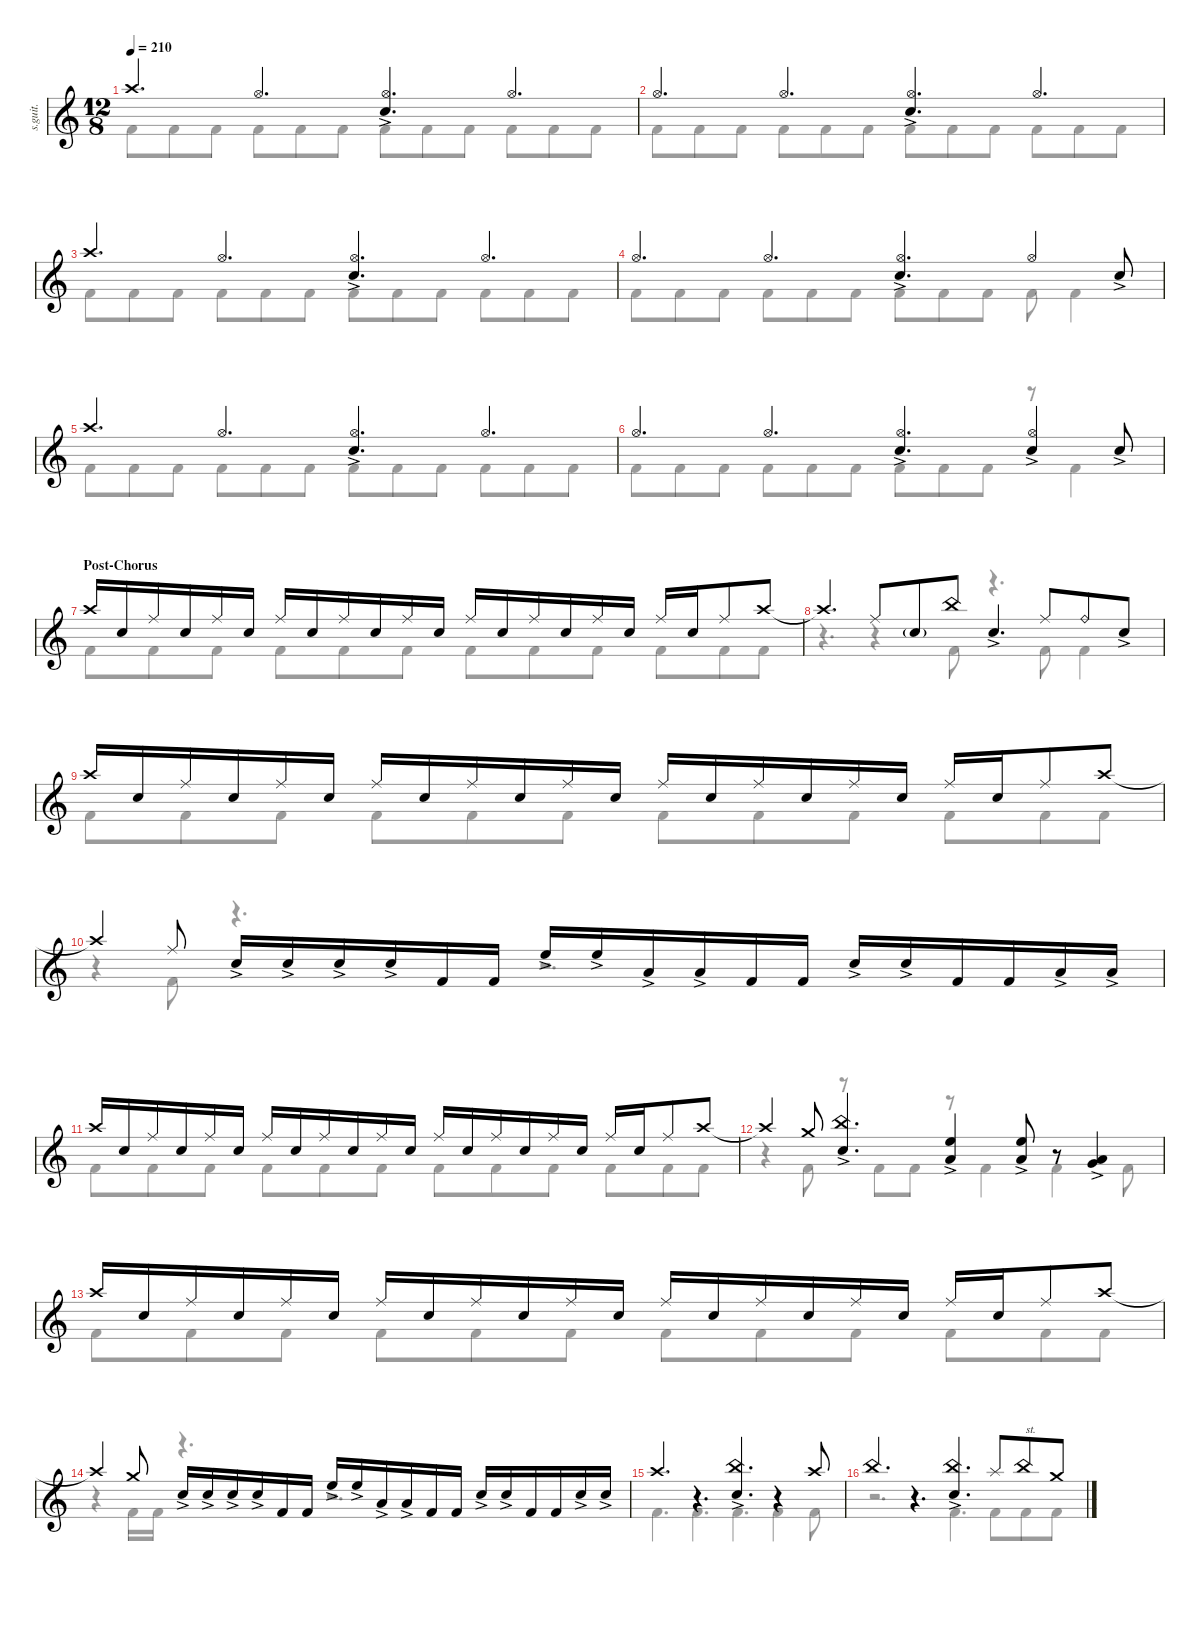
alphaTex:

\defaultSystemsLayout 4
\hideDynamics
\bracketExtendMode nobrackets
\track ("Percussion" "s.guit.") {instrument percussion}
\staff {score}
\articulation defaults
\voice
\ts (12 8)
\tempo 210
\clef g2
\ks c "Crash high (hit)".4{d lyrics (0 "") lyrics (1 "") lyrics (2 "") lyrics (3 "") lyrics (4 "") dy f} "Hi-Hat (open)".4{d lyrics (0 "") lyrics (1 "") lyrics (2 "") lyrics (3 "") lyrics (4 "")}
("Snare (hit) 2"{ac} "Hi-Hat (open)").4{d lyrics (0 "") lyrics (1 "") lyrics (2 "") lyrics (3 "") lyrics (4 "")} "Hi-Hat (open)".4{d lyrics (0 "") lyrics (1 "") lyrics (2 "") lyrics (3 "") lyrics (4 "")} |
"Hi-Hat (open)".4{d lyrics (0 "") lyrics (1 "") lyrics (2 "") lyrics (3 "") lyrics (4 "")} "Hi-Hat (open)".4{d lyrics (0 "") lyrics (1 "") lyrics (2 "") lyrics (3 "") lyrics (4 "")} ("Snare (hit) 2"{ac} "Hi-Hat (open)").4{d lyrics (0 "") lyrics (1 "") lyrics (2 "") lyrics (3 "") lyrics (4 "")} "Hi-Hat (open)".4{d lyrics (0 "") lyrics (1 "") lyrics (2 "") lyrics (3 "") lyrics (4 "")} |
"Crash high (hit)".4{d lyrics (0 "") lyrics (1 "") lyrics (2 "") lyrics (3 "") lyrics (4 "")} "Hi-Hat (open)".4{d lyrics (0 "") lyrics (1 "") lyrics (2 "") lyrics (3 "") lyrics (4 "")} ("Snare (hit) 2"{ac} "Hi-Hat (open)").4{d lyrics (0 "") lyrics (1 "") lyrics (2 "") lyrics (3 "") lyrics (4 "")} "Hi-Hat (open)".4{d lyrics (0 "") lyrics (1 "") lyrics (2 "") lyrics (3 "") lyrics (4 "")} |
"Hi-Hat (open)".4{d lyrics (0 "") lyrics (1 "") lyrics (2 "") lyrics (3 "") lyrics (4 "")} "Hi-Hat (open)".4{d lyrics (0 "") lyrics (1 "") lyrics (2 "") lyrics (3 "") lyrics (4 "")} ("Snare (hit) 2"{ac} "Hi-Hat (open)").4{d lyrics (0 "") lyrics (1 "") lyrics (2 "") lyrics (3 "") lyrics (4 "")} "Hi-Hat (open)".4{lyrics (0 "") lyrics (1 "") lyrics (2 "") lyrics (3 "") lyrics (4 "")} "Snare (hit) 2"{ac}.8{lyrics (0 "") lyrics (1 "") lyrics (2 "") lyrics (3 "") lyrics (4 "") dy mf} |
"Crash high (hit)".4{d lyrics (0 "") lyrics (1 "") lyrics (2 "") lyrics (3 "") lyrics (4 "") dy f} "Hi-Hat (open)".4{d lyrics (0 "") lyrics (1 "") lyrics (2 "") lyrics (3 "") lyrics (4 "")} ("Snare (hit) 2"{ac} "Hi-Hat (open)").4{d lyrics (0 "") lyrics (1 "") lyrics (2 "") lyrics (3 "") lyrics (4 "")} "Hi-Hat (open)".4{d lyrics (0 "") lyrics (1 "") lyrics (2 "") lyrics (3 "") lyrics (4 "")} |
"Hi-Hat (open)".4{d lyrics (0 "") lyrics (1 "") lyrics (2 "") lyrics (3 "") lyrics (4 "")} "Hi-Hat (open)".4{d lyrics (0 "") lyrics (1 "") lyrics (2 "") lyrics (3 "") lyrics (4 "")} ("Snare (hit) 2"{ac} "Hi-Hat (open)").4{d lyrics (0 "") lyrics (1 "") lyrics (2 "") lyrics (3 "") lyrics (4 "")} ("Hi-Hat (open)" "Snare (hit) 2"{ac}).4{lyrics (0 "") lyrics (1 "") lyrics (2 "") lyrics (3 "") lyrics (4 "")} "Snare (hit) 2"{ac}.8{lyrics (0 "") lyrics (1 "") lyrics (2 "") lyrics (3 "") lyrics (4 "") dy mf} |
\section ("" "Post-Chorus")
"Crash high (hit)".16{lyrics (0 "") lyrics (1 "") lyrics (2 "") lyrics (3 "") lyrics (4 "") dy f} "Snare (hit) 2".16{lyrics (0 "") lyrics (1 "") lyrics (2 "") lyrics (3 "") lyrics (4 "")} "Ride (middle)".16{lyrics (0 "") lyrics (1 "") lyrics (2 "") lyrics (3 "") lyrics (4 "")} "Snare (hit) 2".16{lyrics (0 "") lyrics (1 "") lyrics (2 "") lyrics (3 "") lyrics (4 "")} "Ride (middle)".16{lyrics (0 "") lyrics (1 "") lyrics (2 "") lyrics (3 "") lyrics (4 "")} "Snare (hit) 2".16{lyrics (0 "") lyrics (1 "") lyrics (2 "") lyrics (3 "") lyrics (4 "")} "Ride (middle)".16{lyrics (0 "") lyrics (1 "") lyrics (2 "") lyrics (3 "") lyrics (4 "")} "Snare (hit) 2".16{lyrics (0 "") lyrics (1 "") lyrics (2 "") lyrics (3 "") lyrics (4 "")} "Ride (middle)".16{lyrics (0 "") lyrics (1 "") lyrics (2 "") lyrics (3 "") lyrics (4 "")} "Snare (hit) 2".16{lyrics (0 "") lyrics (1 "") lyrics (2 "") lyrics (3 "") lyrics (4 "")} "Ride (middle)".16{lyrics (0 "") lyrics (1 "") lyrics (2 "") lyrics (3 "") lyrics (4 "")} "Snare (hit) 2".16{lyrics (0 "") lyrics (1 "") lyrics (2 "") lyrics (3 "") lyrics (4 "")} "Ride (middle)".16{lyrics (0 "") lyrics (1 "") lyrics (2 "") lyrics (3 "") lyrics (4 "")} "Snare (hit) 2".16{lyrics (0 "") lyrics (1 "") lyrics (2 "") lyrics (3 "") lyrics (4 "")} "Ride (middle)".16{lyrics (0 "") lyrics (1 "") lyrics (2 "") lyrics (3 "") lyrics (4 "")} "Snare (hit) 2".16{lyrics (0 "") lyrics (1 "") lyrics (2 "") lyrics (3 "") lyrics (4 "")} "Ride (middle)".16{lyrics (0 "") lyrics (1 "") lyrics (2 "") lyrics (3 "") lyrics (4 "")} "Snare (hit) 2".16{lyrics (0 "") lyrics (1 "") lyrics (2 "") lyrics (3 "") lyrics (4 "")} "Ride (middle)".16{lyrics (0 "") lyrics (1 "") lyrics (2 "") lyrics (3 "") lyrics (4 "")} "Snare (hit) 2".16{lyrics (0 "") lyrics (1 "") lyrics (2 "") lyrics (3 "") lyrics (4 "")} "Ride (middle)".8{lyrics (0 "") lyrics (1 "") lyrics (2 "") lyrics (3 "") lyrics (4 "")} "Crash high (hit)".8{lyrics (0 "") lyrics (1 "") lyrics (2 "") lyrics (3 "") lyrics (4 "")} |
"Crash high (hit)"{t}.4{d lyrics (0 "") lyrics (1 "") lyrics (2 "") lyrics (3 "") lyrics (4 "")} "Ride (middle)".8{lyrics (0 "") lyrics (1 "") lyrics (2 "") lyrics (3 "") lyrics (4 "")} "Snare (hit) 2"{g}.8{lyrics (0 "") lyrics (1 "") lyrics (2 "") lyrics (3 "") lyrics (4 "") dy ff} "China (hit)".8{lyrics (0 "") lyrics (1 "") lyrics (2 "") lyrics (3 "") lyrics (4 "") dy f} "Snare (hit) 2"{ac}.4{d lyrics (0 "") lyrics (1 "") lyrics (2 "") lyrics (3 "") lyrics (4 "") dy mf} "Ride (middle)".8{lyrics (0 "") lyrics (1 "") lyrics (2 "") lyrics (3 "") lyrics (4 "") dy f} "Ride (bell)".8{lyrics (0 "") lyrics (1 "") lyrics (2 "") lyrics (3 "") lyrics (4 "")} "Snare (hit) 2"{ac}.8{lyrics (0 "") lyrics (1 "") lyrics (2 "") lyrics (3 "") lyrics (4 "") dy mf} |
"Crash high (hit)".16{lyrics (0 "") lyrics (1 "") lyrics (2 "") lyrics (3 "") lyrics (4 "") dy f} "Snare (hit) 2".16{lyrics (0 "") lyrics (1 "") lyrics (2 "") lyrics (3 "") lyrics (4 "")} "Ride (middle)".16{lyrics (0 "") lyrics (1 "") lyrics (2 "") lyrics (3 "") lyrics (4 "")} "Snare (hit) 2".16{lyrics (0 "") lyrics (1 "") lyrics (2 "") lyrics (3 "") lyrics (4 "")} "Ride (middle)".16{lyrics (0 "") lyrics (1 "") lyrics (2 "") lyrics (3 "") lyrics (4 "")} "Snare (hit) 2".16{lyrics (0 "") lyrics (1 "") lyrics (2 "") lyrics (3 "") lyrics (4 "")} "Ride (middle)".16{lyrics (0 "") lyrics (1 "") lyrics (2 "") lyrics (3 "") lyrics (4 "")} "Snare (hit) 2".16{lyrics (0 "") lyrics (1 "") lyrics (2 "") lyrics (3 "") lyrics (4 "")} "Ride (middle)".16{lyrics (0 "") lyrics (1 "") lyrics (2 "") lyrics (3 "") lyrics (4 "")} "Snare (hit) 2".16{lyrics (0 "") lyrics (1 "") lyrics (2 "") lyrics (3 "") lyrics (4 "")} "Ride (middle)".16{lyrics (0 "") lyrics (1 "") lyrics (2 "") lyrics (3 "") lyrics (4 "")} "Snare (hit) 2".16{lyrics (0 "") lyrics (1 "") lyrics (2 "") lyrics (3 "") lyrics (4 "")} "Ride (middle)".16{lyrics (0 "") lyrics (1 "") lyrics (2 "") lyrics (3 "") lyrics (4 "")} "Snare (hit) 2".16{lyrics (0 "") lyrics (1 "") lyrics (2 "") lyrics (3 "") lyrics (4 "")} "Ride (middle)".16{lyrics (0 "") lyrics (1 "") lyrics (2 "") lyrics (3 "") lyrics (4 "")} "Snare (hit) 2".16{lyrics (0 "") lyrics (1 "") lyrics (2 "") lyrics (3 "") lyrics (4 "")} "Ride (middle)".16{lyrics (0 "") lyrics (1 "") lyrics (2 "") lyrics (3 "") lyrics (4 "")} "Snare (hit) 2".16{lyrics (0 "") lyrics (1 "") lyrics (2 "") lyrics (3 "") lyrics (4 "")} "Ride (middle)".16{lyrics (0 "") lyrics (1 "") lyrics (2 "") lyrics (3 "") lyrics (4 "")} "Snare (hit) 2".16{lyrics (0 "") lyrics (1 "") lyrics (2 "") lyrics (3 "") lyrics (4 "")} "Ride (middle)".8{lyrics (0 "") lyrics (1 "") lyrics (2 "") lyrics (3 "") lyrics (4 "")} "Crash high (hit)".8{lyrics (0 "") lyrics (1 "") lyrics (2 "") lyrics (3 "") lyrics (4 "")} |
"Crash high (hit)"{t}.4{lyrics (0 "") lyrics (1 "") lyrics (2 "") lyrics (3 "") lyrics (4 "")} "Ride (middle)".8{lyrics (0 "") lyrics (1 "") lyrics (2 "") lyrics (3 "") lyrics (4 "")} "Snare (hit) 2"{ac}.16{lyrics (0 "") lyrics (1 "") lyrics (2 "") lyrics (3 "") lyrics (4 "") dy mf} "Snare (hit) 2"{ac}.16{lyrics (0 "") lyrics (1 "") lyrics (2 "") lyrics (3 "") lyrics (4 "")} "Snare (hit) 2"{ac}.16{lyrics (0 "") lyrics (1 "") lyrics (2 "") lyrics (3 "") lyrics (4 "")} "Snare (hit) 2"{ac}.16{lyrics (0 "") lyrics (1 "") lyrics (2 "") lyrics (3 "") lyrics (4 "")} "Kick (hit) 2".16{lyrics (0 "") lyrics (1 "") lyrics (2 "") lyrics (3 "") lyrics (4 "") dy f} "Kick (hit) 2".16{lyrics (0 "") lyrics (1 "") lyrics (2 "") lyrics (3 "") lyrics (4 "")} "High Floor Tom (hit)"{ac}.16{lyrics (0 "") lyrics (1 "") lyrics (2 "") lyrics (3 "") lyrics (4 "") dy mf} "High Floor Tom (hit)"{ac}.16{lyrics (0 "") lyrics (1 "") lyrics (2 "") lyrics (3 "") lyrics (4 "")} "Low Tom (hit)"{ac}.16{lyrics (0 "") lyrics (1 "") lyrics (2 "") lyrics (3 "") lyrics (4 "")} "Low Tom (hit)"{ac}.16{lyrics (0 "") lyrics (1 "") lyrics (2 "") lyrics (3 "") lyrics (4 "")} "Kick (hit) 2".16{lyrics (0 "") lyrics (1 "") lyrics (2 "") lyrics (3 "") lyrics (4 "") dy f} "Kick (hit) 2".16{lyrics (0 "") lyrics (1 "") lyrics (2 "") lyrics (3 "") lyrics (4 "")} "Snare (hit) 2"{ac}.16{lyrics (0 "") lyrics (1 "") lyrics (2 "") lyrics (3 "") lyrics (4 "") dy mf} "Snare (hit) 2"{ac}.16{lyrics (0 "") lyrics (1 "") lyrics (2 "") lyrics (3 "") lyrics (4 "")} "Kick (hit) 2".16{lyrics (0 "") lyrics (1 "") lyrics (2 "") lyrics (3 "") lyrics (4 "") dy f} "Kick (hit) 2".16{lyrics (0 "") lyrics (1 "") lyrics (2 "") lyrics (3 "") lyrics (4 "")} "Low Tom (hit)"{ac}.16{lyrics (0 "") lyrics (1 "") lyrics (2 "") lyrics (3 "") lyrics (4 "") dy mf} "Low Tom (hit)"{ac}.16{lyrics (0 "") lyrics (1 "") lyrics (2 "") lyrics (3 "") lyrics (4 "")} |
"Crash high (hit)".16{lyrics (0 "") lyrics (1 "") lyrics (2 "") lyrics (3 "") lyrics (4 "") dy f} "Snare (hit) 2".16{lyrics (0 "") lyrics (1 "") lyrics (2 "") lyrics (3 "") lyrics (4 "")} "Ride (middle)".16{lyrics (0 "") lyrics (1 "") lyrics (2 "") lyrics (3 "") lyrics (4 "")} "Snare (hit) 2".16{lyrics (0 "") lyrics (1 "") lyrics (2 "") lyrics (3 "") lyrics (4 "")} "Ride (middle)".16{lyrics (0 "") lyrics (1 "") lyrics (2 "") lyrics (3 "") lyrics (4 "")} "Snare (hit) 2".16{lyrics (0 "") lyrics (1 "") lyrics (2 "") lyrics (3 "") lyrics (4 "")} "Ride (middle)".16{lyrics (0 "") lyrics (1 "") lyrics (2 "") lyrics (3 "") lyrics (4 "")} "Snare (hit) 2".16{lyrics (0 "") lyrics (1 "") lyrics (2 "") lyrics (3 "") lyrics (4 "")} "Ride (middle)".16{lyrics (0 "") lyrics (1 "") lyrics (2 "") lyrics (3 "") lyrics (4 "")} "Snare (hit) 2".16{lyrics (0 "") lyrics (1 "") lyrics (2 "") lyrics (3 "") lyrics (4 "")} "Ride (middle)".16{lyrics (0 "") lyrics (1 "") lyrics (2 "") lyrics (3 "") lyrics (4 "")} "Snare (hit) 2".16{lyrics (0 "") lyrics (1 "") lyrics (2 "") lyrics (3 "") lyrics (4 "")} "Ride (middle)".16{lyrics (0 "") lyrics (1 "") lyrics (2 "") lyrics (3 "") lyrics (4 "")} "Snare (hit) 2".16{lyrics (0 "") lyrics (1 "") lyrics (2 "") lyrics (3 "") lyrics (4 "")} "Ride (middle)".16{lyrics (0 "") lyrics (1 "") lyrics (2 "") lyrics (3 "") lyrics (4 "")} "Snare (hit) 2".16{lyrics (0 "") lyrics (1 "") lyrics (2 "") lyrics (3 "") lyrics (4 "")} "Ride (middle)".16{lyrics (0 "") lyrics (1 "") lyrics (2 "") lyrics (3 "") lyrics (4 "")} "Snare (hit) 2".16{lyrics (0 "") lyrics (1 "") lyrics (2 "") lyrics (3 "") lyrics (4 "")} "Ride (middle)".16{lyrics (0 "") lyrics (1 "") lyrics (2 "") lyrics (3 "") lyrics (4 "")} "Snare (hit) 2".16{lyrics (0 "") lyrics (1 "") lyrics (2 "") lyrics (3 "") lyrics (4 "")} "Ride (middle)".8{lyrics (0 "") lyrics (1 "") lyrics (2 "") lyrics (3 "") lyrics (4 "")} "Crash high (hit)".8{lyrics (0 "") lyrics (1 "") lyrics (2 "") lyrics (3 "") lyrics (4 "")} |
"Crash high (hit)"{t}.4{lyrics (0 "") lyrics (1 "") lyrics (2 "") lyrics (3 "") lyrics (4 "")} "Crash medium (hit)".8{lyrics (0 "") lyrics (1 "") lyrics (2 "") lyrics (3 "") lyrics (4 "")} ("Snare (hit) 2"{ac} "China (hit)").4{d lyrics (0 "") lyrics (1 "") lyrics (2 "") lyrics (3 "") lyrics (4 "")} ("High Floor Tom (hit)"{ac} "Low Tom (hit)"{ac}).4{lyrics (0 "") lyrics (1 "") lyrics (2 "") lyrics (3 "") lyrics (4 "") dy mf} ("Low Tom (hit)"{ac} "High Floor Tom (hit)"{ac}).8{lyrics (0 "") lyrics (1 "") lyrics (2 "") lyrics (3 "") lyrics (4 "")} r.8 ("Very Low Tom (hit)"{ac} "Low Tom (hit)"{ac}).4{lyrics (0 "") lyrics (1 "") lyrics (2 "") lyrics (3 "") lyrics (4 "")} |
"Crash high (hit)".16{lyrics (0 "") lyrics (1 "") lyrics (2 "") lyrics (3 "") lyrics (4 "") dy f} "Snare (hit) 2".16{lyrics (0 "") lyrics (1 "") lyrics (2 "") lyrics (3 "") lyrics (4 "")} "Ride (middle)".16{lyrics (0 "") lyrics (1 "") lyrics (2 "") lyrics (3 "") lyrics (4 "")} "Snare (hit) 2".16{lyrics (0 "") lyrics (1 "") lyrics (2 "") lyrics (3 "") lyrics (4 "")} "Ride (middle)".16{lyrics (0 "") lyrics (1 "") lyrics (2 "") lyrics (3 "") lyrics (4 "")} "Snare (hit) 2".16{lyrics (0 "") lyrics (1 "") lyrics (2 "") lyrics (3 "") lyrics (4 "")} "Ride (middle)".16{lyrics (0 "") lyrics (1 "") lyrics (2 "") lyrics (3 "") lyrics (4 "")} "Snare (hit) 2".16{lyrics (0 "") lyrics (1 "") lyrics (2 "") lyrics (3 "") lyrics (4 "")} "Ride (middle)".16{lyrics (0 "") lyrics (1 "") lyrics (2 "") lyrics (3 "") lyrics (4 "")} "Snare (hit) 2".16{lyrics (0 "") lyrics (1 "") lyrics (2 "") lyrics (3 "") lyrics (4 "")} "Ride (middle)".16{lyrics (0 "") lyrics (1 "") lyrics (2 "") lyrics (3 "") lyrics (4 "")} "Snare (hit) 2".16{lyrics (0 "") lyrics (1 "") lyrics (2 "") lyrics (3 "") lyrics (4 "")} "Ride (middle)".16{lyrics (0 "") lyrics (1 "") lyrics (2 "") lyrics (3 "") lyrics (4 "")} "Snare (hit) 2".16{lyrics (0 "") lyrics (1 "") lyrics (2 "") lyrics (3 "") lyrics (4 "")} "Ride (middle)".16{lyrics (0 "") lyrics (1 "") lyrics (2 "") lyrics (3 "") lyrics (4 "")} "Snare (hit) 2".16{lyrics (0 "") lyrics (1 "") lyrics (2 "") lyrics (3 "") lyrics (4 "")} "Ride (middle)".16{lyrics (0 "") lyrics (1 "") lyrics (2 "") lyrics (3 "") lyrics (4 "")} "Snare (hit) 2".16{lyrics (0 "") lyrics (1 "") lyrics (2 "") lyrics (3 "") lyrics (4 "")} "Ride (middle)".16{lyrics (0 "") lyrics (1 "") lyrics (2 "") lyrics (3 "") lyrics (4 "")} "Snare (hit) 2".16{lyrics (0 "") lyrics (1 "") lyrics (2 "") lyrics (3 "") lyrics (4 "")} "Ride (middle)".8{lyrics (0 "") lyrics (1 "") lyrics (2 "") lyrics (3 "") lyrics (4 "")} "Crash high (hit)".8{lyrics (0 "") lyrics (1 "") lyrics (2 "") lyrics (3 "") lyrics (4 "")} |
"Crash high (hit)"{t}.4{lyrics (0 "") lyrics (1 "") lyrics (2 "") lyrics (3 "") lyrics (4 "")} "Crash medium (hit)".8{lyrics (0 "") lyrics (1 "") lyrics (2 "") lyrics (3 "") lyrics (4 "")} "Snare (hit) 2"{ac}.16{lyrics (0 "") lyrics (1 "") lyrics (2 "") lyrics (3 "") lyrics (4 "") dy mf} "Snare (hit) 2"{ac}.16{lyrics (0 "") lyrics (1 "") lyrics (2 "") lyrics (3 "") lyrics (4 "")} "Snare (hit) 2"{ac}.16{lyrics (0 "") lyrics (1 "") lyrics (2 "") lyrics (3 "") lyrics (4 "")} "Snare (hit) 2"{ac}.16{lyrics (0 "") lyrics (1 "") lyrics (2 "") lyrics (3 "") lyrics (4 "")} "Kick (hit) 2".16{lyrics (0 "") lyrics (1 "") lyrics (2 "") lyrics (3 "") lyrics (4 "") dy f} "Kick (hit) 2".16{lyrics (0 "") lyrics (1 "") lyrics (2 "") lyrics (3 "") lyrics (4 "")} "High Floor Tom (hit)"{ac}.16{lyrics (0 "") lyrics (1 "") lyrics (2 "") lyrics (3 "") lyrics (4 "") dy mf} "High Floor Tom (hit)"{ac}.16{lyrics (0 "") lyrics (1 "") lyrics (2 "") lyrics (3 "") lyrics (4 "")} "Low Tom (hit)"{ac}.16{lyrics (0 "") lyrics (1 "") lyrics (2 "") lyrics (3 "") lyrics (4 "")} "Low Tom (hit)"{ac}.16{lyrics (0 "") lyrics (1 "") lyrics (2 "") lyrics (3 "") lyrics (4 "")} "Kick (hit) 2".16{lyrics (0 "") lyrics (1 "") lyrics (2 "") lyrics (3 "") lyrics (4 "") dy f} "Kick (hit) 2".16{lyrics (0 "") lyrics (1 "") lyrics (2 "") lyrics (3 "") lyrics (4 "")} "Snare (hit) 2"{ac}.16{lyrics (0 "") lyrics (1 "") lyrics (2 "") lyrics (3 "") lyrics (4 "") dy mf} "Snare (hit) 2"{ac}.16{lyrics (0 "") lyrics (1 "") lyrics (2 "") lyrics (3 "") lyrics (4 "")} "Kick (hit) 2".16{lyrics (0 "") lyrics (1 "") lyrics (2 "") lyrics (3 "") lyrics (4 "") dy f} "Kick (hit) 2".16{lyrics (0 "") lyrics (1 "") lyrics (2 "") lyrics (3 "") lyrics (4 "")} "Snare (hit) 2"{ac}.16{lyrics (0 "") lyrics (1 "") lyrics (2 "") lyrics (3 "") lyrics (4 "") dy mf} "Snare (hit) 2"{ac}.16{lyrics (0 "") lyrics (1 "") lyrics (2 "") lyrics (3 "") lyrics (4 "")} |
"Crash high (hit)".4{d lyrics (0 "") lyrics (1 "") lyrics (2 "") lyrics (3 "") lyrics (4 "") dy f} r.4{d} ("China (hit)" "Snare (hit) 2"{ac}).4{d lyrics (0 "") lyrics (1 "") lyrics (2 "") lyrics (3 "") lyrics (4 "")} r.4 "Crash high (hit)".8{lyrics (0 "") lyrics (1 "") lyrics (2 "") lyrics (3 "") lyrics (4 "")} |
"China (hit)".4{d lyrics (0 "") lyrics (1 "") lyrics (2 "") lyrics (3 "") lyrics (4 "")} r.4{d} ("China (hit)" "Snare (hit) 2"{ac}).4{d lyrics (0 "") lyrics (1 "") lyrics (2 "") lyrics (3 "") lyrics (4 "")} "Splash (hit)".8{lyrics (0 "") lyrics (1 "") lyrics (2 "") lyrics (3 "") lyrics (4 "")} "China (hit)".8{txt "st." lyrics (0 "") lyrics (1 "") lyrics (2 "") lyrics (3 "") lyrics (4 "")} "Crash medium (hit)".8{lyrics (0 "") lyrics (1 "") lyrics (2 "") lyrics (3 "") lyrics (4 "")}
\voice
\clef g2
\ottava regular
\simile none
\ks c "Kick (hit) 2".8{lyrics (0 "") lyrics (1 "") lyrics (2 "") lyrics (3 "") lyrics (4 "") dy f} "Kick (hit) 2".8{lyrics (0 "") lyrics (1 "") lyrics (2 "") lyrics (3 "") lyrics (4 "")} "Kick (hit) 2".8{lyrics (0 "") lyrics (1 "") lyrics (2 "") lyrics (3 "") lyrics (4 "")} "Kick (hit) 2".8{lyrics (0 "") lyrics (1 "") lyrics (2 "") lyrics (3 "") lyrics (4 "")} "Kick (hit) 2".8{lyrics (0 "") lyrics (1 "") lyrics (2 "") lyrics (3 "") lyrics (4 "")} "Kick (hit) 2".8{lyrics (0 "") lyrics (1 "") lyrics (2 "") lyrics (3 "") lyrics (4 "")} "Kick (hit) 2".8{lyrics (0 "") lyrics (1 "") lyrics (2 "") lyrics (3 "") lyrics (4 "")} "Kick (hit) 2".8{lyrics (0 "") lyrics (1 "") lyrics (2 "") lyrics (3 "") lyrics (4 "")} "Kick (hit) 2".8{lyrics (0 "") lyrics (1 "") lyrics (2 "") lyrics (3 "") lyrics (4 "")} "Kick (hit) 2".8{lyrics (0 "") lyrics (1 "") lyrics (2 "") lyrics (3 "") lyrics (4 "")} "Kick (hit) 2".8{lyrics (0 "") lyrics (1 "") lyrics (2 "") lyrics (3 "") lyrics (4 "")} "Kick (hit) 2".8{lyrics (0 "") lyrics (1 "") lyrics (2 "") lyrics (3 "") lyrics (4 "")}
|
"Kick (hit) 2".8{lyrics (0 "") lyrics (1 "") lyrics (2 "") lyrics (3 "") lyrics (4 "")} "Kick (hit) 2".8{lyrics (0 "") lyrics (1 "") lyrics (2 "") lyrics (3 "") lyrics (4 "")} "Kick (hit) 2".8{lyrics (0 "") lyrics (1 "") lyrics (2 "") lyrics (3 "") lyrics (4 "")} "Kick (hit) 2".8{lyrics (0 "") lyrics (1 "") lyrics (2 "") lyrics (3 "") lyrics (4 "")} "Kick (hit) 2".8{lyrics (0 "") lyrics (1 "") lyrics (2 "") lyrics (3 "") lyrics (4 "")} "Kick (hit) 2".8{lyrics (0 "") lyrics (1 "") lyrics (2 "") lyrics (3 "") lyrics (4 "")} "Kick (hit) 2".8{lyrics (0 "") lyrics (1 "") lyrics (2 "") lyrics (3 "") lyrics (4 "")} "Kick (hit) 2".8{lyrics (0 "") lyrics (1 "") lyrics (2 "") lyrics (3 "") lyrics (4 "")} "Kick (hit) 2".8{lyrics (0 "") lyrics (1 "") lyrics (2 "") lyrics (3 "") lyrics (4 "")} "Kick (hit) 2".8{lyrics (0 "") lyrics (1 "") lyrics (2 "") lyrics (3 "") lyrics (4 "")} "Kick (hit) 2".8{lyrics (0 "") lyrics (1 "") lyrics (2 "") lyrics (3 "") lyrics (4 "")} "Kick (hit) 2".8{lyrics (0 "") lyrics (1 "") lyrics (2 "") lyrics (3 "") lyrics (4 "")} |
"Kick (hit) 2".8{lyrics (0 "") lyrics (1 "") lyrics (2 "") lyrics (3 "") lyrics (4 "")} "Kick (hit) 2".8{lyrics (0 "") lyrics (1 "") lyrics (2 "") lyrics (3 "") lyrics (4 "")} "Kick (hit) 2".8{lyrics (0 "") lyrics (1 "") lyrics (2 "") lyrics (3 "") lyrics (4 "")} "Kick (hit) 2".8{lyrics (0 "") lyrics (1 "") lyrics (2 "") lyrics (3 "") lyrics (4 "")} "Kick (hit) 2".8{lyrics (0 "") lyrics (1 "") lyrics (2 "") lyrics (3 "") lyrics (4 "")} "Kick (hit) 2".8{lyrics (0 "") lyrics (1 "") lyrics (2 "") lyrics (3 "") lyrics (4 "")} "Kick (hit) 2".8{lyrics (0 "") lyrics (1 "") lyrics (2 "") lyrics (3 "") lyrics (4 "")} "Kick (hit) 2".8{lyrics (0 "") lyrics (1 "") lyrics (2 "") lyrics (3 "") lyrics (4 "")} "Kick (hit) 2".8{lyrics (0 "") lyrics (1 "") lyrics (2 "") lyrics (3 "") lyrics (4 "")} "Kick (hit) 2".8{lyrics (0 "") lyrics (1 "") lyrics (2 "") lyrics (3 "") lyrics (4 "")} "Kick (hit) 2".8{lyrics (0 "") lyrics (1 "") lyrics (2 "") lyrics (3 "") lyrics (4 "")} "Kick (hit) 2".8{lyrics (0 "") lyrics (1 "") lyrics (2 "") lyrics (3 "") lyrics (4 "")} |
"Kick (hit) 2".8{lyrics (0 "") lyrics (1 "") lyrics (2 "") lyrics (3 "") lyrics (4 "")} "Kick (hit) 2".8{lyrics (0 "") lyrics (1 "") lyrics (2 "") lyrics (3 "") lyrics (4 "")} "Kick (hit) 2".8{lyrics (0 "") lyrics (1 "") lyrics (2 "") lyrics (3 "") lyrics (4 "")} "Kick (hit) 2".8{lyrics (0 "") lyrics (1 "") lyrics (2 "") lyrics (3 "") lyrics (4 "")} "Kick (hit) 2".8{lyrics (0 "") lyrics (1 "") lyrics (2 "") lyrics (3 "") lyrics (4 "")} "Kick (hit) 2".8{lyrics (0 "") lyrics (1 "") lyrics (2 "") lyrics (3 "") lyrics (4 "")} "Kick (hit) 2".8{lyrics (0 "") lyrics (1 "") lyrics (2 "") lyrics (3 "") lyrics (4 "")} "Kick (hit) 2".8{lyrics (0 "") lyrics (1 "") lyrics (2 "") lyrics (3 "") lyrics (4 "")} "Kick (hit) 2".8{lyrics (0 "") lyrics (1 "") lyrics (2 "") lyrics (3 "") lyrics (4 "")} "Kick (hit) 2".8{lyrics (0 "") lyrics (1 "") lyrics (2 "") lyrics (3 "") lyrics (4 "")} "Kick (hit) 2".4{lyrics (0 "") lyrics (1 "") lyrics (2 "") lyrics (3 "") lyrics (4 "")} |
"Kick (hit) 2".8{lyrics (0 "") lyrics (1 "") lyrics (2 "") lyrics (3 "") lyrics (4 "")} "Kick (hit) 2".8{lyrics (0 "") lyrics (1 "") lyrics (2 "") lyrics (3 "") lyrics (4 "")} "Kick (hit) 2".8{lyrics (0 "") lyrics (1 "") lyrics (2 "") lyrics (3 "") lyrics (4 "")} "Kick (hit) 2".8{lyrics (0 "") lyrics (1 "") lyrics (2 "") lyrics (3 "") lyrics (4 "")} "Kick (hit) 2".8{lyrics (0 "") lyrics (1 "") lyrics (2 "") lyrics (3 "") lyrics (4 "")} "Kick (hit) 2".8{lyrics (0 "") lyrics (1 "") lyrics (2 "") lyrics (3 "") lyrics (4 "")} "Kick (hit) 2".8{lyrics (0 "") lyrics (1 "") lyrics (2 "") lyrics (3 "") lyrics (4 "")} "Kick (hit) 2".8{lyrics (0 "") lyrics (1 "") lyrics (2 "") lyrics (3 "") lyrics (4 "")} "Kick (hit) 2".8{lyrics (0 "") lyrics (1 "") lyrics (2 "") lyrics (3 "") lyrics (4 "")} "Kick (hit) 2".8{lyrics (0 "") lyrics (1 "") lyrics (2 "") lyrics (3 "") lyrics (4 "")} "Kick (hit) 2".8{lyrics (0 "") lyrics (1 "") lyrics (2 "") lyrics (3 "") lyrics (4 "")} "Kick (hit) 2".8{lyrics (0 "") lyrics (1 "") lyrics (2 "") lyrics (3 "") lyrics (4 "")} |
"Kick (hit) 2".8{lyrics (0 "") lyrics (1 "") lyrics (2 "") lyrics (3 "") lyrics (4 "")} "Kick (hit) 2".8{lyrics (0 "") lyrics (1 "") lyrics (2 "") lyrics (3 "") lyrics (4 "")} "Kick (hit) 2".8{lyrics (0 "") lyrics (1 "") lyrics (2 "") lyrics (3 "") lyrics (4 "")} "Kick (hit) 2".8{lyrics (0 "") lyrics (1 "") lyrics (2 "") lyrics (3 "") lyrics (4 "")} "Kick (hit) 2".8{lyrics (0 "") lyrics (1 "") lyrics (2 "") lyrics (3 "") lyrics (4 "")} "Kick (hit) 2".8{lyrics (0 "") lyrics (1 "") lyrics (2 "") lyrics (3 "") lyrics (4 "")} "Kick (hit) 2".8{lyrics (0 "") lyrics (1 "") lyrics (2 "") lyrics (3 "") lyrics (4 "")} "Kick (hit) 2".8{lyrics (0 "") lyrics (1 "") lyrics (2 "") lyrics (3 "") lyrics (4 "")} "Kick (hit) 2".8{lyrics (0 "") lyrics (1 "") lyrics (2 "") lyrics (3 "") lyrics (4 "")} r.8 "Kick (hit) 2".4{lyrics (0 "") lyrics (1 "") lyrics (2 "") lyrics (3 "") lyrics (4 "")} |
"Kick (hit) 2".8{lyrics (0 "") lyrics (1 "") lyrics (2 "") lyrics (3 "") lyrics (4 "")} "Kick (hit) 2".8{lyrics (0 "") lyrics (1 "") lyrics (2 "") lyrics (3 "") lyrics (4 "")} "Kick (hit) 2".8{lyrics (0 "") lyrics (1 "") lyrics (2 "") lyrics (3 "") lyrics (4 "")} "Kick (hit) 2".8{lyrics (0 "") lyrics (1 "") lyrics (2 "") lyrics (3 "") lyrics (4 "")} "Kick (hit) 2".8{lyrics (0 "") lyrics (1 "") lyrics (2 "") lyrics (3 "") lyrics (4 "")} "Kick (hit) 2".8{lyrics (0 "") lyrics (1 "") lyrics (2 "") lyrics (3 "") lyrics (4 "")} "Kick (hit) 2".8{lyrics (0 "") lyrics (1 "") lyrics (2 "") lyrics (3 "") lyrics (4 "")} "Kick (hit) 2".8{lyrics (0 "") lyrics (1 "") lyrics (2 "") lyrics (3 "") lyrics (4 "")} "Kick (hit) 2".8{lyrics (0 "") lyrics (1 "") lyrics (2 "") lyrics (3 "") lyrics (4 "")} "Kick (hit) 2".8{lyrics (0 "") lyrics (1 "") lyrics (2 "") lyrics (3 "") lyrics (4 "")} "Kick (hit) 2".8{lyrics (0 "") lyrics (1 "") lyrics (2 "") lyrics (3 "") lyrics (4 "")} "Kick (hit) 2".8{lyrics (0 "") lyrics (1 "") lyrics (2 "") lyrics (3 "") lyrics (4 "")} |
r.4{d} r.4 "Kick (hit) 2".8{lyrics (0 "") lyrics (1 "") lyrics (2 "") lyrics (3 "") lyrics (4 "")} r.4{d} "Kick (hit) 2".8{lyrics (0 "") lyrics (1 "") lyrics (2 "") lyrics (3 "") lyrics (4 "")} "Kick (hit) 2".4{lyrics (0 "") lyrics (1 "") lyrics (2 "") lyrics (3 "") lyrics (4 "")} |
"Kick (hit) 2".8{lyrics (0 "") lyrics (1 "") lyrics (2 "") lyrics (3 "") lyrics (4 "")} "Kick (hit) 2".8{lyrics (0 "") lyrics (1 "") lyrics (2 "") lyrics (3 "") lyrics (4 "")} "Kick (hit) 2".8{lyrics (0 "") lyrics (1 "") lyrics (2 "") lyrics (3 "") lyrics (4 "")} "Kick (hit) 2".8{lyrics (0 "") lyrics (1 "") lyrics (2 "") lyrics (3 "") lyrics (4 "")} "Kick (hit) 2".8{lyrics (0 "") lyrics (1 "") lyrics (2 "") lyrics (3 "") lyrics (4 "")} "Kick (hit) 2".8{lyrics (0 "") lyrics (1 "") lyrics (2 "") lyrics (3 "") lyrics (4 "")} "Kick (hit) 2".8{lyrics (0 "") lyrics (1 "") lyrics (2 "") lyrics (3 "") lyrics (4 "")} "Kick (hit) 2".8{lyrics (0 "") lyrics (1 "") lyrics (2 "") lyrics (3 "") lyrics (4 "")} "Kick (hit) 2".8{lyrics (0 "") lyrics (1 "") lyrics (2 "") lyrics (3 "") lyrics (4 "")} "Kick (hit) 2".8{lyrics (0 "") lyrics (1 "") lyrics (2 "") lyrics (3 "") lyrics (4 "")} "Kick (hit) 2".8{lyrics (0 "") lyrics (1 "") lyrics (2 "") lyrics (3 "") lyrics (4 "")} "Kick (hit) 2".8{lyrics (0 "") lyrics (1 "") lyrics (2 "") lyrics (3 "") lyrics (4 "")} |
r.4 "Kick (hit) 2".8{lyrics (0 "") lyrics (1 "") lyrics (2 "") lyrics (3 "") lyrics (4 "")} r.4{d} r.2{d} |
"Kick (hit) 2".8{lyrics (0 "") lyrics (1 "") lyrics (2 "") lyrics (3 "") lyrics (4 "")} "Kick (hit) 2".8{lyrics (0 "") lyrics (1 "") lyrics (2 "") lyrics (3 "") lyrics (4 "")} "Kick (hit) 2".8{lyrics (0 "") lyrics (1 "") lyrics (2 "") lyrics (3 "") lyrics (4 "")} "Kick (hit) 2".8{lyrics (0 "") lyrics (1 "") lyrics (2 "") lyrics (3 "") lyrics (4 "")} "Kick (hit) 2".8{lyrics (0 "") lyrics (1 "") lyrics (2 "") lyrics (3 "") lyrics (4 "")} "Kick (hit) 2".8{lyrics (0 "") lyrics (1 "") lyrics (2 "") lyrics (3 "") lyrics (4 "")} "Kick (hit) 2".8{lyrics (0 "") lyrics (1 "") lyrics (2 "") lyrics (3 "") lyrics (4 "")} "Kick (hit) 2".8{lyrics (0 "") lyrics (1 "") lyrics (2 "") lyrics (3 "") lyrics (4 "")} "Kick (hit) 2".8{lyrics (0 "") lyrics (1 "") lyrics (2 "") lyrics (3 "") lyrics (4 "")} "Kick (hit) 2".8{lyrics (0 "") lyrics (1 "") lyrics (2 "") lyrics (3 "") lyrics (4 "")} "Kick (hit) 2".8{lyrics (0 "") lyrics (1 "") lyrics (2 "") lyrics (3 "") lyrics (4 "")} "Kick (hit) 2".8{lyrics (0 "") lyrics (1 "") lyrics (2 "") lyrics (3 "") lyrics (4 "")} |
r.4 "Kick (hit) 2".8{lyrics (0 "") lyrics (1 "") lyrics (2 "") lyrics (3 "") lyrics (4 "")} r.8 "Kick (hit) 2".8{lyrics (0 "") lyrics (1 "") lyrics (2 "") lyrics (3 "") lyrics (4 "")} "Kick (hit) 2".8{lyrics (0 "") lyrics (1 "") lyrics (2 "") lyrics (3 "") lyrics (4 "")} r.8 "Kick (hit) 2".4{lyrics (0 "") lyrics (1 "") lyrics (2 "") lyrics (3 "") lyrics (4 "")} "Kick (hit) 2".4{lyrics (0 "") lyrics (1 "") lyrics (2 "") lyrics (3 "") lyrics (4 "")} "Kick (hit) 2".8{lyrics (0 "") lyrics (1 "") lyrics (2 "") lyrics (3 "") lyrics (4 "")} |
"Kick (hit) 2".8{lyrics (0 "") lyrics (1 "") lyrics (2 "") lyrics (3 "") lyrics (4 "")} "Kick (hit) 2".8{lyrics (0 "") lyrics (1 "") lyrics (2 "") lyrics (3 "") lyrics (4 "")} "Kick (hit) 2".8{lyrics (0 "") lyrics (1 "") lyrics (2 "") lyrics (3 "") lyrics (4 "")} "Kick (hit) 2".8{lyrics (0 "") lyrics (1 "") lyrics (2 "") lyrics (3 "") lyrics (4 "")} "Kick (hit) 2".8{lyrics (0 "") lyrics (1 "") lyrics (2 "") lyrics (3 "") lyrics (4 "")} "Kick (hit) 2".8{lyrics (0 "") lyrics (1 "") lyrics (2 "") lyrics (3 "") lyrics (4 "")} "Kick (hit) 2".8{lyrics (0 "") lyrics (1 "") lyrics (2 "") lyrics (3 "") lyrics (4 "")} "Kick (hit) 2".8{lyrics (0 "") lyrics (1 "") lyrics (2 "") lyrics (3 "") lyrics (4 "")} "Kick (hit) 2".8{lyrics (0 "") lyrics (1 "") lyrics (2 "") lyrics (3 "") lyrics (4 "")} "Kick (hit) 2".8{lyrics (0 "") lyrics (1 "") lyrics (2 "") lyrics (3 "") lyrics (4 "")} "Kick (hit) 2".8{lyrics (0 "") lyrics (1 "") lyrics (2 "") lyrics (3 "") lyrics (4 "")} "Kick (hit) 2".8{lyrics (0 "") lyrics (1 "") lyrics (2 "") lyrics (3 "") lyrics (4 "")} |
r.4 "Kick (hit) 2".16{lyrics (0 "") lyrics (1 "") lyrics (2 "") lyrics (3 "") lyrics (4 "")} "Kick (hit) 2".16{lyrics (0 "") lyrics (1 "") lyrics (2 "") lyrics (3 "") lyrics (4 "")} r.4{d} r.2{d} |
"Kick (hit) 2".4{d lyrics (0 "") lyrics (1 "") lyrics (2 "") lyrics (3 "") lyrics (4 "")} "Kick (hit) 2".4{d lyrics (0 "") lyrics (1 "") lyrics (2 "") lyrics (3 "") lyrics (4 "")} "Kick (hit) 2".4{d lyrics (0 "") lyrics (1 "") lyrics (2 "") lyrics (3 "") lyrics (4 "")} "Kick (hit) 2".4{lyrics (0 "") lyrics (1 "") lyrics (2 "") lyrics (3 "") lyrics (4 "")} "Kick (hit) 2".8{lyrics (0 "") lyrics (1 "") lyrics (2 "") lyrics (3 "") lyrics (4 "")} |
r.2{d} "Kick (hit) 2".4{d lyrics (0 "") lyrics (1 "") lyrics (2 "") lyrics (3 "") lyrics (4 "")} "Kick (hit) 2".8{lyrics (0 "") lyrics (1 "") lyrics (2 "") lyrics (3 "") lyrics (4 "")} "Kick (hit) 2".8{lyrics (0 "") lyrics (1 "") lyrics (2 "") lyrics (3 "") lyrics (4 "")} "Kick (hit) 2".8{lyrics (0 "") lyrics (1 "") lyrics (2 "") lyrics (3 "") lyrics (4 "")}
